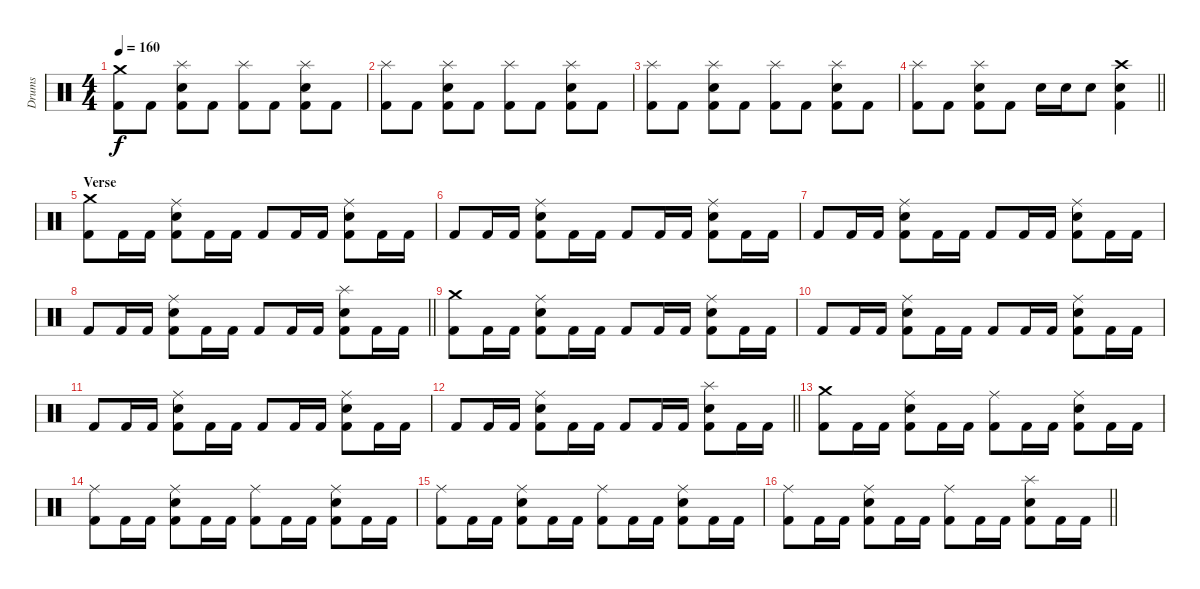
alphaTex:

\track ("Drums" "Drums") {instrument percussion}
\staff {score}
\articulation defaults
\ts (4 4)
\section ("" "")
\tempo 160
\clef neutral
\ks c
("Kick (hit) 2" "Crash medium (hit)").8{dy f} "Kick (hit) 2".8 ("Kick (hit) 2" "Snare (hit) 2" "Splash (hit)").8 "Kick (hit) 2".8 ("Kick (hit) 2" "Splash (hit)").8 "Kick (hit) 2".8 ("Kick (hit) 2" "Snare (hit) 2" "Splash (hit)").8 "Kick (hit) 2".8 |
("Kick (hit) 2" "Splash (hit)").8 "Kick (hit) 2".8 ("Kick (hit) 2" "Snare (hit) 2" "Splash (hit)").8 "Kick (hit) 2".8 ("Kick (hit) 2" "Splash (hit)").8 "Kick (hit) 2".8 ("Kick (hit) 2" "Snare (hit) 2" "Splash (hit)").8 "Kick (hit) 2".8 |
("Kick (hit) 2" "Splash (hit)").8 "Kick (hit) 2".8 ("Kick (hit) 2" "Snare (hit) 2" "Splash (hit)").8 "Kick (hit) 2".8 ("Kick (hit) 2" "Splash (hit)").8 "Kick (hit) 2".8 ("Kick (hit) 2" "Snare (hit) 2" "Splash (hit)").8 "Kick (hit) 2".8 |
\barLineRight lightlight
("Kick (hit) 2" "Splash (hit)").8 "Kick (hit) 2".8 ("Kick (hit) 2" "Snare (hit) 2" "Splash (hit)").8 "Kick (hit) 2".8 "Snare (hit) 2".16 "Snare (hit) 2".16 "Snare (hit) 2".8 ("Kick (hit) 2" "Snare (hit) 2" "Crash high (hit)").4 |
\section ("" "Verse")
("Kick (hit) 2" "Crash medium (hit)").8 "Kick (hit) 2".16 "Kick (hit) 2".16 ("Kick (hit) 2" "Snare (hit) 2" "Ride (middle)").8 "Kick (hit) 2".16 "Kick (hit) 2".16 "Kick (hit) 2".8 "Kick (hit) 2".16 "Kick (hit) 2".16 ("Kick (hit) 2" "Snare (hit) 2" "Ride (middle)").8 "Kick (hit) 2".16 "Kick (hit) 2".16 |
"Kick (hit) 2".8 "Kick (hit) 2".16 "Kick (hit) 2".16 ("Kick (hit) 2" "Snare (hit) 2" "Ride (middle)").8 "Kick (hit) 2".16 "Kick (hit) 2".16 "Kick (hit) 2".8 "Kick (hit) 2".16 "Kick (hit) 2".16 ("Kick (hit) 2" "Snare (hit) 2" "Ride (middle)").8 "Kick (hit) 2".16 "Kick (hit) 2".16 |
"Kick (hit) 2".8 "Kick (hit) 2".16 "Kick (hit) 2".16 ("Kick (hit) 2" "Snare (hit) 2" "Ride (middle)").8 "Kick (hit) 2".16 "Kick (hit) 2".16 "Kick (hit) 2".8 "Kick (hit) 2".16 "Kick (hit) 2".16 ("Kick (hit) 2" "Snare (hit) 2" "Ride (middle)").8 "Kick (hit) 2".16 "Kick (hit) 2".16 |
\barLineRight lightlight "Kick (hit) 2".8 "Kick (hit) 2".16 "Kick (hit) 2".16
("Kick (hit) 2" "Snare (hit) 2" "Ride (middle)").8 "Kick (hit) 2".16 "Kick (hit) 2".16 "Kick (hit) 2".8 "Kick (hit) 2".16 "Kick (hit) 2".16 ("Kick (hit) 2" "Snare (hit) 2" "Splash (hit)").8 "Kick (hit) 2".16 "Kick (hit) 2".16 |
\section ("" "")
("Kick (hit) 2" "Crash medium (hit)").8 "Kick (hit) 2".16 "Kick (hit) 2".16 ("Kick (hit) 2" "Snare (hit) 2" "Ride (middle)").8 "Kick (hit) 2".16 "Kick (hit) 2".16 "Kick (hit) 2".8 "Kick (hit) 2".16 "Kick (hit) 2".16 ("Kick (hit) 2" "Snare (hit) 2" "Ride (middle)").8 "Kick (hit) 2".16 "Kick (hit) 2".16 |
"Kick (hit) 2".8 "Kick (hit) 2".16 "Kick (hit) 2".16 ("Kick (hit) 2" "Snare (hit) 2" "Ride (middle)").8 "Kick (hit) 2".16 "Kick (hit) 2".16 "Kick (hit) 2".8 "Kick (hit) 2".16 "Kick (hit) 2".16 ("Kick (hit) 2" "Snare (hit) 2" "Ride (middle)").8 "Kick (hit) 2".16 "Kick (hit) 2".16 |
"Kick (hit) 2".8 "Kick (hit) 2".16 "Kick (hit) 2".16 ("Kick (hit) 2" "Snare (hit) 2" "Ride (middle)").8 "Kick (hit) 2".16 "Kick (hit) 2".16 "Kick (hit) 2".8 "Kick (hit) 2".16 "Kick (hit) 2".16 ("Kick (hit) 2" "Snare (hit) 2" "Ride (middle)").8 "Kick (hit) 2".16 "Kick (hit) 2".16 |
\barLineRight lightlight "Kick (hit) 2".8 "Kick (hit) 2".16 "Kick (hit) 2".16
("Kick (hit) 2" "Snare (hit) 2" "Ride (middle)").8 "Kick (hit) 2".16 "Kick (hit) 2".16 "Kick (hit) 2".8 "Kick (hit) 2".16 "Kick (hit) 2".16 ("Kick (hit) 2" "Snare (hit) 2" "Splash (hit)").8 "Kick (hit) 2".16 "Kick (hit) 2".16 |
\section ("" "")
("Kick (hit) 2" "Crash medium (hit)").8 "Kick (hit) 2".16 "Kick (hit) 2".16 ("Kick (hit) 2" "Snare (hit) 2" "Ride (middle)").8 "Kick (hit) 2".16 "Kick (hit) 2".16 ("Kick (hit) 2" "Ride (middle)").8 "Kick (hit) 2".16 "Kick (hit) 2".16 ("Kick (hit) 2" "Snare (hit) 2" "Ride (middle)").8 "Kick (hit) 2".16 "Kick (hit) 2".16 |
("Kick (hit) 2" "Ride (middle)").8 "Kick (hit) 2".16 "Kick (hit) 2".16 ("Kick (hit) 2" "Snare (hit) 2" "Ride (middle)").8 "Kick (hit) 2".16 "Kick (hit) 2".16 ("Kick (hit) 2" "Ride (middle)").8 "Kick (hit) 2".16 "Kick (hit) 2".16 ("Kick (hit) 2" "Snare (hit) 2" "Ride (middle)").8 "Kick (hit) 2".16 "Kick (hit) 2".16 |
("Kick (hit) 2" "Ride (middle)").8 "Kick (hit) 2".16 "Kick (hit) 2".16 ("Kick (hit) 2" "Snare (hit) 2" "Ride (middle)").8 "Kick (hit) 2".16 "Kick (hit) 2".16 ("Kick (hit) 2" "Ride (middle)").8 "Kick (hit) 2".16 "Kick (hit) 2".16 ("Kick (hit) 2" "Snare (hit) 2" "Ride (middle)").8 "Kick (hit) 2".16 "Kick (hit) 2".16 |
\barLineRight lightlight
("Kick (hit) 2" "Ride (middle)").8 "Kick (hit) 2".16 "Kick (hit) 2".16 ("Kick (hit) 2" "Snare (hit) 2" "Ride (middle)").8 "Kick (hit) 2".16 "Kick (hit) 2".16 ("Kick (hit) 2" "Ride (middle)").8 "Kick (hit) 2".16 "Kick (hit) 2".16 ("Kick (hit) 2" "Snare (hit) 2" "Splash (hit)").8 "Kick (hit) 2".16 "Kick (hit) 2".16
